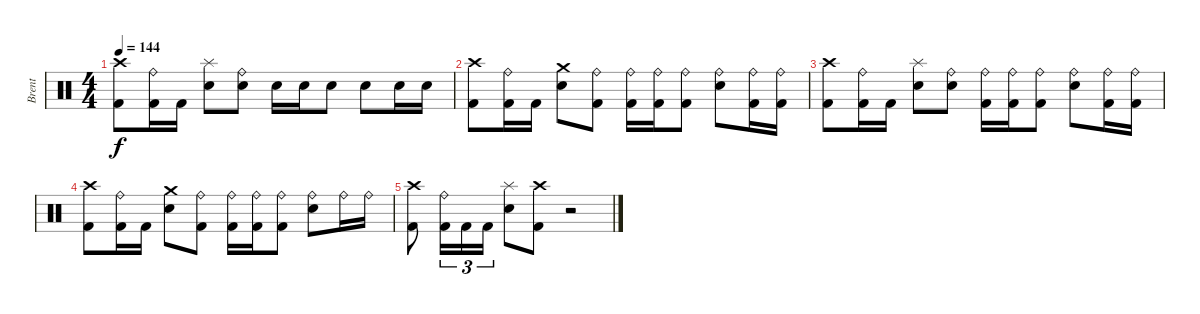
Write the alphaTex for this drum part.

\track ("Brent" "Brent") {instrument percussion}
\staff {score}
\articulation defaults
\ts (4 4)
\tempo 144
\clef neutral
\ks c
("Crash high (hit)" "Kick (hit) 2").8{dy f} ("Ride (bell)" "Kick (hit) 2").16 "Kick (hit) 2".16 ("Splash (hit)" "Snare (hit) 2").8 ("Ride (bell)" "Snare (hit) 2").8 "Snare (hit) 2".16 "Snare (hit) 2".16 "Snare (hit) 2".8 "Snare (hit) 2".8 "Snare (hit) 2".16 "Snare (hit) 2".16 |
("Crash high (hit)" "Kick (hit) 2").8 ("Ride (bell)" "Kick (hit) 2").16 "Kick (hit) 2".16 ("Crash medium (hit)" "Snare (hit) 2").8 ("Ride (bell)" "Kick (hit) 2").8 ("Ride (bell)" "Kick (hit) 2").16 ("Ride (bell)" "Kick (hit) 2").16 ("Ride (bell)" "Kick (hit) 2").8 ("Ride (bell)" "Snare (hit) 2").8 ("Ride (bell)" "Kick (hit) 2").16 ("Ride (bell)" "Kick (hit) 2").16 |
("Crash high (hit)" "Kick (hit) 2").8 ("Ride (bell)" "Kick (hit) 2").16 "Kick (hit) 2".16 ("Splash (hit)" "Snare (hit) 2").8 ("Ride (bell)" "Snare (hit) 2").8 ("Ride (bell)" "Kick (hit) 2").16 ("Ride (bell)" "Kick (hit) 2").16 ("Ride (bell)" "Kick (hit) 2").8 ("Ride (bell)" "Snare (hit) 2").8 ("Ride (bell)" "Kick (hit) 2").16 ("Ride (bell)" "Kick (hit) 2").16 |
("Crash high (hit)" "Kick (hit) 2").8 ("Ride (bell)" "Kick (hit) 2").16 "Kick (hit) 2".16 ("Crash medium (hit)" "Snare (hit) 2").8 ("Ride (bell)" "Kick (hit) 2").8 ("Ride (bell)" "Kick (hit) 2").16 ("Ride (bell)" "Kick (hit) 2").16 ("Ride (bell)" "Kick (hit) 2").8 ("Ride (bell)" "Snare (hit) 2").8 "Ride (bell)".16 "Ride (bell)".16 |
("Crash high (hit)" "Kick (hit) 2").8 ("Ride (bell)" "Kick (hit) 2").16{tu (3 2)} "Kick (hit) 2".16{tu (3 2)} "Kick (hit) 2".16{tu (3 2)} ("Splash (hit)" "Snare (hit) 2").8 ("Crash high (hit)" "Kick (hit) 2").8 r.2
